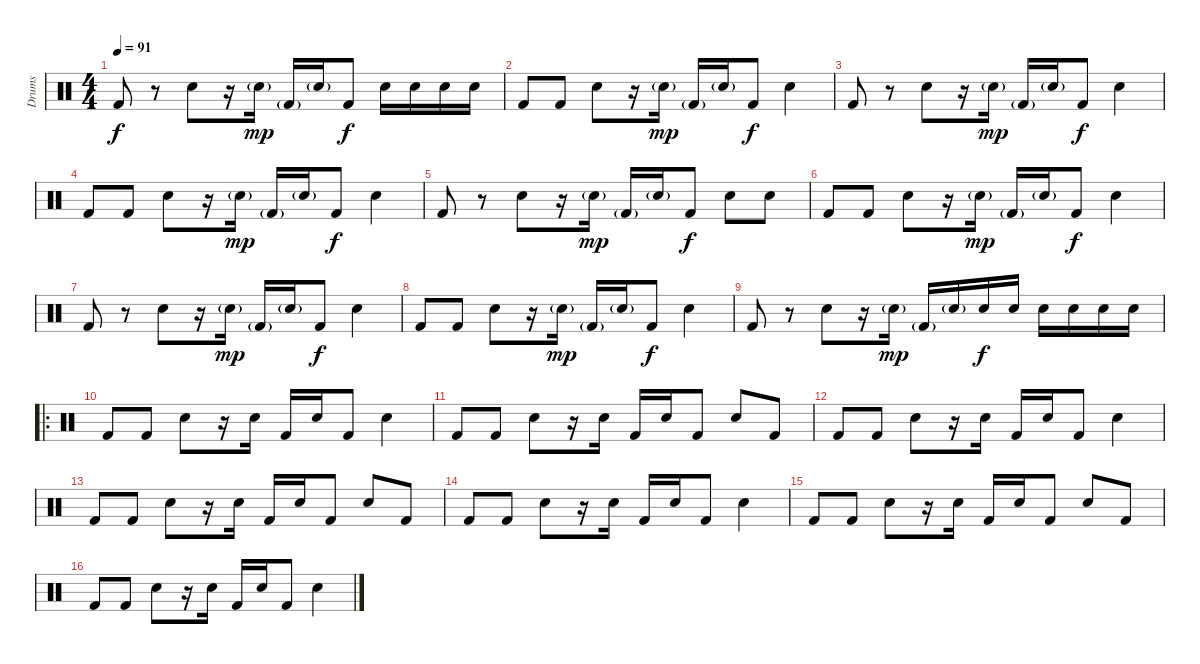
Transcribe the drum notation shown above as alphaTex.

\track ("Drums" "Drums") {instrument percussion}
\staff {score}
\articulation defaults
\ts (4 4)
\tempo 91
\clef neutral
\ks c "Kick (hit) 2".8{dy f}
r.8 "Snare (hit) 2".8 r.16 "Snare (hit) 2"{g}.16{dy mp} "Kick (hit) 2"{g}.16 "Snare (hit) 2"{g}.16 "Kick (hit) 2".8{dy f} "Snare (hit) 2".16 "Snare (hit) 2".16 "Snare (hit) 2".16 "Snare (hit) 2".16 |
"Kick (hit) 2".8 "Kick (hit) 2".8 "Snare (hit) 2".8 r.16 "Snare (hit) 2"{g}.16{dy mp} "Kick (hit) 2"{g}.16 "Snare (hit) 2"{g}.16 "Kick (hit) 2".8{dy f} "Snare (hit) 2".4 |
"Kick (hit) 2".8 r.8 "Snare (hit) 2".8 r.16 "Snare (hit) 2"{g}.16{dy mp} "Kick (hit) 2"{g}.16 "Snare (hit) 2"{g}.16 "Kick (hit) 2".8{dy f} "Snare (hit) 2".4 |
"Kick (hit) 2".8 "Kick (hit) 2".8 "Snare (hit) 2".8 r.16 "Snare (hit) 2"{g}.16{dy mp} "Kick (hit) 2"{g}.16 "Snare (hit) 2"{g}.16 "Kick (hit) 2".8{dy f} "Snare (hit) 2".4 |
"Kick (hit) 2".8 r.8 "Snare (hit) 2".8 r.16 "Snare (hit) 2"{g}.16{dy mp} "Kick (hit) 2"{g}.16 "Snare (hit) 2"{g}.16 "Kick (hit) 2".8{dy f} "Snare (hit) 2".8 "Snare (hit) 2".8 |
"Kick (hit) 2".8 "Kick (hit) 2".8 "Snare (hit) 2".8 r.16 "Snare (hit) 2"{g}.16{dy mp} "Kick (hit) 2"{g}.16 "Snare (hit) 2"{g}.16 "Kick (hit) 2".8{dy f} "Snare (hit) 2".4 |
"Kick (hit) 2".8 r.8 "Snare (hit) 2".8 r.16 "Snare (hit) 2"{g}.16{dy mp} "Kick (hit) 2"{g}.16 "Snare (hit) 2"{g}.16 "Kick (hit) 2".8{dy f} "Snare (hit) 2".4 |
"Kick (hit) 2".8 "Kick (hit) 2".8 "Snare (hit) 2".8 r.16 "Snare (hit) 2"{g}.16{dy mp} "Kick (hit) 2"{g}.16 "Snare (hit) 2"{g}.16 "Kick (hit) 2".8{dy f} "Snare (hit) 2".4 |
"Kick (hit) 2".8 r.8 "Snare (hit) 2".8 r.16 "Snare (hit) 2"{g}.16{dy mp} "Kick (hit) 2"{g}.16 "Snare (hit) 2"{g}.16 "Snare (hit) 2".16{dy f} "Snare (hit) 2".16 "Snare (hit) 2".16 "Snare (hit) 2".16 "Snare (hit) 2".16 "Snare (hit) 2".16 |
\ro "Kick (hit) 2".8 "Kick (hit) 2".8 "Snare (hit) 2".8
r.16 "Snare (hit) 2".16 "Kick (hit) 2".16 "Snare (hit) 2".16 "Kick (hit) 2".8 "Snare (hit) 2".4 |
"Kick (hit) 2".8 "Kick (hit) 2".8 "Snare (hit) 2".8 r.16 "Snare (hit) 2".16 "Kick (hit) 2".16 "Snare (hit) 2".16 "Kick (hit) 2".8 "Snare (hit) 2".8 "Kick (hit) 2".8 |
"Kick (hit) 2".8 "Kick (hit) 2".8 "Snare (hit) 2".8 r.16 "Snare (hit) 2".16 "Kick (hit) 2".16 "Snare (hit) 2".16 "Kick (hit) 2".8 "Snare (hit) 2".4 |
"Kick (hit) 2".8 "Kick (hit) 2".8 "Snare (hit) 2".8 r.16 "Snare (hit) 2".16 "Kick (hit) 2".16 "Snare (hit) 2".16 "Kick (hit) 2".8 "Snare (hit) 2".8 "Kick (hit) 2".8 |
"Kick (hit) 2".8 "Kick (hit) 2".8 "Snare (hit) 2".8 r.16 "Snare (hit) 2".16 "Kick (hit) 2".16 "Snare (hit) 2".16 "Kick (hit) 2".8 "Snare (hit) 2".4 |
"Kick (hit) 2".8 "Kick (hit) 2".8 "Snare (hit) 2".8 r.16 "Snare (hit) 2".16 "Kick (hit) 2".16 "Snare (hit) 2".16 "Kick (hit) 2".8 "Snare (hit) 2".8 "Kick (hit) 2".8 |
"Kick (hit) 2".8 "Kick (hit) 2".8 "Snare (hit) 2".8 r.16 "Snare (hit) 2".16 "Kick (hit) 2".16 "Snare (hit) 2".16 "Kick (hit) 2".8 "Snare (hit) 2".4
